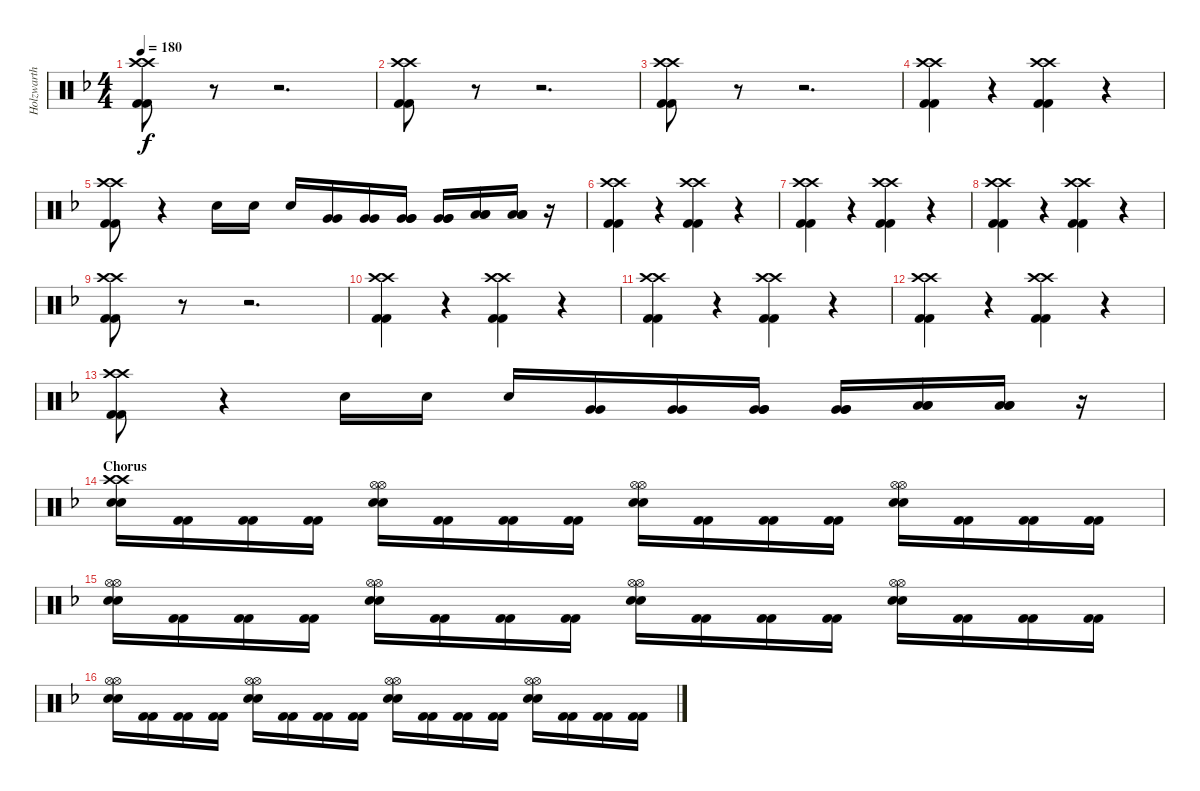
\track ("Holzwarth" "Holzwarth") {instrument percussion}
\staff {score}
\articulation defaults
\ts (4 4)
\tempo 180
\clef neutral
\ks dminor
("Kick (hit) 2" "Kick (hit) 2" "Crash high (hit)" "Crash high (hit)").8{dy f} r.8 r.2{d} |
("Kick (hit) 2" "Kick (hit) 2" "Crash high (hit)" "Crash high (hit)").8 r.8 r.2{d} |
("Kick (hit) 2" "Kick (hit) 2" "Crash high (hit)" "Crash high (hit)").8 r.8 r.2{d} |
("Kick (hit) 2" "Kick (hit) 2" "Crash high (hit)" "Crash high (hit)").4 r.4 ("Kick (hit) 2" "Kick (hit) 2" "Crash high (hit)" "Crash high (hit)").4 r.4 |
("Kick (hit) 2" "Kick (hit) 2" "Crash high (hit)" "Crash high (hit)").8 r.4 "Snare (hit) 2".16 "Snare (hit) 2".16 "Snare (hit) 2".16 ("Very Low Tom (hit)" "Very Low Tom (hit)").16 ("Very Low Tom (hit)" "Very Low Tom (hit)").16 ("Very Low Tom (hit)" "Very Low Tom (hit)" "Very Low Tom (hit)").16 ("Very Low Tom (hit)" "Very Low Tom (hit)" "Very Low Tom (hit)").16 ("Low Tom (hit)" "Low Tom (hit)" "Low Tom (hit)").16 ("Low Tom (hit)" "Low Tom (hit)" "Low Tom (hit)").16 r.16 |
("Kick (hit) 2" "Kick (hit) 2" "Crash high (hit)" "Crash high (hit)").4 r.4 ("Kick (hit) 2" "Kick (hit) 2" "Crash high (hit)" "Crash high (hit)").4 r.4 |
("Kick (hit) 2" "Kick (hit) 2" "Crash high (hit)" "Crash high (hit)").4 r.4 ("Kick (hit) 2" "Kick (hit) 2" "Crash high (hit)" "Crash high (hit)").4 r.4 |
("Kick (hit) 2" "Kick (hit) 2" "Crash high (hit)" "Crash high (hit)").4 r.4 ("Kick (hit) 2" "Kick (hit) 2" "Crash high (hit)" "Crash high (hit)").4 r.4 |
("Kick (hit) 2" "Kick (hit) 2" "Crash high (hit)" "Crash high (hit)").8 r.8 r.2{d} |
("Kick (hit) 2" "Kick (hit) 2" "Crash high (hit)" "Crash high (hit)").4 r.4 ("Kick (hit) 2" "Kick (hit) 2" "Crash high (hit)" "Crash high (hit)").4 r.4 |
("Kick (hit) 2" "Kick (hit) 2" "Crash high (hit)" "Crash high (hit)").4 r.4 ("Kick (hit) 2" "Kick (hit) 2" "Crash high (hit)" "Crash high (hit)").4 r.4 |
("Kick (hit) 2" "Kick (hit) 2" "Crash high (hit)" "Crash high (hit)").4 r.4 ("Kick (hit) 2" "Kick (hit) 2" "Crash high (hit)" "Crash high (hit)").4 r.4 |
("Kick (hit) 2" "Kick (hit) 2" "Crash high (hit)" "Crash high (hit)").8 r.4 "Snare (hit) 2".16 "Snare (hit) 2".16 "Snare (hit) 2".16 ("Very Low Tom (hit)" "Very Low Tom (hit)").16 ("Very Low Tom (hit)" "Very Low Tom (hit)").16 ("Very Low Tom (hit)" "Very Low Tom (hit)" "Very Low Tom (hit)").16 ("Very Low Tom (hit)" "Very Low Tom (hit)" "Very Low Tom (hit)").16 ("Low Tom (hit)" "Low Tom (hit)" "Low Tom (hit)").16 ("Low Tom (hit)" "Low Tom (hit)" "Low Tom (hit)").16 r.16 |
\section ("" "Chorus")
("Snare (hit) 2" "Snare (hit) 2" "Crash high (hit)" "Crash high (hit)").16 ("Kick (hit) 2" "Kick (hit) 2").16 ("Kick (hit) 2" "Kick (hit) 2").16 ("Kick (hit) 2" "Kick (hit) 2").16 ("Snare (hit) 2" "Snare (hit) 2" "Hi-Hat (open)" "Hi-Hat (open)").16 ("Kick (hit) 2" "Kick (hit) 2").16 ("Kick (hit) 2" "Kick (hit) 2").16 ("Kick (hit) 2" "Kick (hit) 2").16 ("Snare (hit) 2" "Snare (hit) 2" "Hi-Hat (open)" "Hi-Hat (open)").16 ("Kick (hit) 2" "Kick (hit) 2").16 ("Kick (hit) 2" "Kick (hit) 2").16 ("Kick (hit) 2" "Kick (hit) 2").16 ("Snare (hit) 2" "Snare (hit) 2" "Hi-Hat (open)" "Hi-Hat (open)").16 ("Kick (hit) 2" "Kick (hit) 2").16 ("Kick (hit) 2" "Kick (hit) 2").16 ("Kick (hit) 2" "Kick (hit) 2").16 |
("Snare (hit) 2" "Snare (hit) 2" "Hi-Hat (open)" "Hi-Hat (open)").16 ("Kick (hit) 2" "Kick (hit) 2").16 ("Kick (hit) 2" "Kick (hit) 2").16 ("Kick (hit) 2" "Kick (hit) 2").16 ("Snare (hit) 2" "Snare (hit) 2" "Hi-Hat (open)" "Hi-Hat (open)").16 ("Kick (hit) 2" "Kick (hit) 2").16 ("Kick (hit) 2" "Kick (hit) 2").16 ("Kick (hit) 2" "Kick (hit) 2").16 ("Snare (hit) 2" "Snare (hit) 2" "Hi-Hat (open)" "Hi-Hat (open)").16 ("Kick (hit) 2" "Kick (hit) 2").16 ("Kick (hit) 2" "Kick (hit) 2").16 ("Kick (hit) 2" "Kick (hit) 2").16 ("Snare (hit) 2" "Snare (hit) 2" "Hi-Hat (open)" "Hi-Hat (open)").16 ("Kick (hit) 2" "Kick (hit) 2").16 ("Kick (hit) 2" "Kick (hit) 2").16 ("Kick (hit) 2" "Kick (hit) 2").16 |
("Snare (hit) 2" "Snare (hit) 2" "Hi-Hat (open)" "Hi-Hat (open)").16 ("Kick (hit) 2" "Kick (hit) 2").16 ("Kick (hit) 2" "Kick (hit) 2").16 ("Kick (hit) 2" "Kick (hit) 2").16 ("Snare (hit) 2" "Snare (hit) 2" "Hi-Hat (open)" "Hi-Hat (open)").16 ("Kick (hit) 2" "Kick (hit) 2").16 ("Kick (hit) 2" "Kick (hit) 2").16 ("Kick (hit) 2" "Kick (hit) 2").16 ("Snare (hit) 2" "Snare (hit) 2" "Hi-Hat (open)" "Hi-Hat (open)").16 ("Kick (hit) 2" "Kick (hit) 2").16 ("Kick (hit) 2" "Kick (hit) 2").16 ("Kick (hit) 2" "Kick (hit) 2").16 ("Snare (hit) 2" "Snare (hit) 2" "Hi-Hat (open)" "Hi-Hat (open)").16 ("Kick (hit) 2" "Kick (hit) 2").16 ("Kick (hit) 2" "Kick (hit) 2").16 ("Kick (hit) 2" "Kick (hit) 2").16
